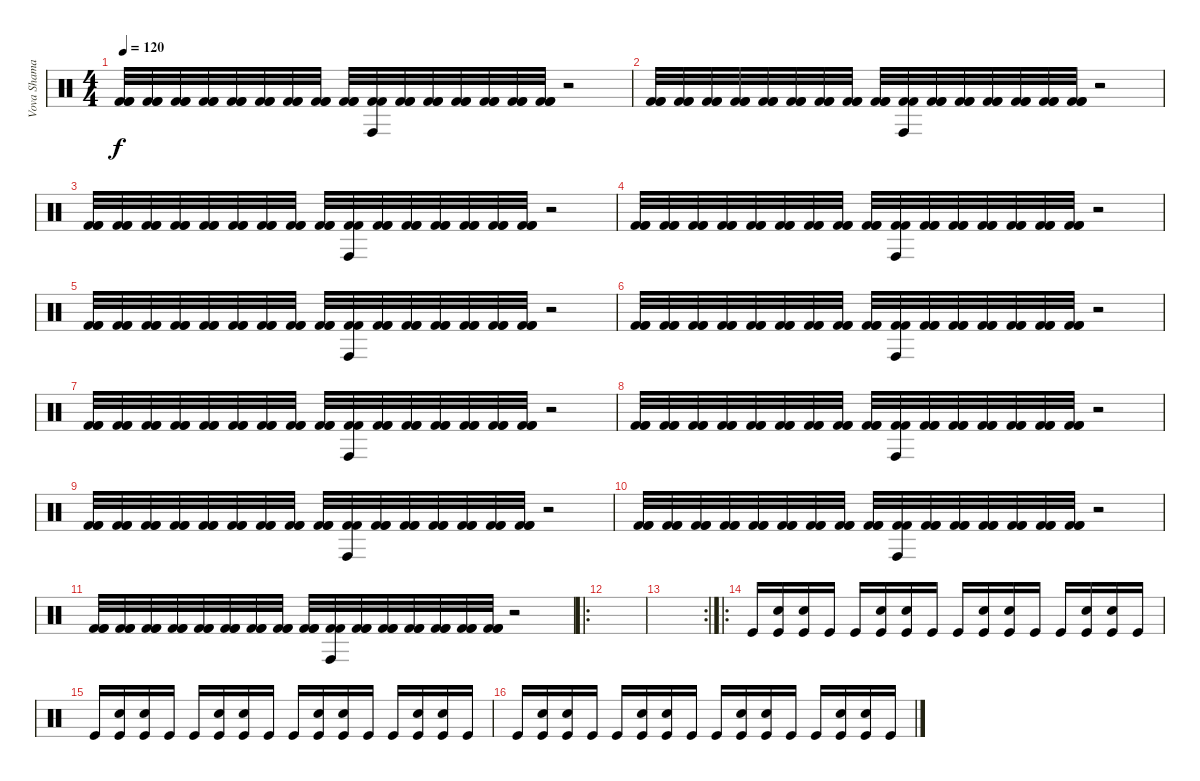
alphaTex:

\track ("Vova Shamay" "Vova Shama") {instrument percussion}
\staff {score}
\articulation defaults
\ts (4 4)
\tempo 120
\clef neutral
\ks c
("Kick (hit) 2" "Kick (hit) 2" "Kick (hit) 2").32{dy f} ("Kick (hit) 2" "Kick (hit) 2" "Kick (hit) 2").32 ("Kick (hit) 2" "Kick (hit) 2" "Kick (hit) 2").32 ("Kick (hit) 2" "Kick (hit) 2" "Kick (hit) 2").32 ("Kick (hit) 2" "Kick (hit) 2" "Kick (hit) 2").32 ("Kick (hit) 2" "Kick (hit) 2" "Kick (hit) 2").32 ("Kick (hit) 2" "Kick (hit) 2" "Kick (hit) 2").32 ("Kick (hit) 2" "Kick (hit) 2" "Kick (hit) 2").32 ("Kick (hit) 2" "Kick (hit) 2" "Kick (hit) 2").32 ("Conga high (hit)" "Kick (hit) 2" "Kick (hit) 2").32 ("Kick (hit) 2" "Kick (hit) 2" "Kick (hit) 2").32 ("Kick (hit) 2" "Kick (hit) 2" "Kick (hit) 2").32 ("Kick (hit) 2" "Kick (hit) 2" "Kick (hit) 2").32 ("Kick (hit) 2" "Kick (hit) 2" "Kick (hit) 2").32 ("Kick (hit) 2" "Kick (hit) 2" "Kick (hit) 2").32 ("Kick (hit) 2" "Kick (hit) 2" "Kick (hit) 2").32 r.2 |
("Kick (hit) 2" "Kick (hit) 2" "Kick (hit) 2").32 ("Kick (hit) 2" "Kick (hit) 2" "Kick (hit) 2").32 ("Kick (hit) 2" "Kick (hit) 2" "Kick (hit) 2").32 ("Kick (hit) 2" "Kick (hit) 2" "Kick (hit) 2").32 ("Kick (hit) 2" "Kick (hit) 2" "Kick (hit) 2").32 ("Kick (hit) 2" "Kick (hit) 2" "Kick (hit) 2").32 ("Kick (hit) 2" "Kick (hit) 2" "Kick (hit) 2").32 ("Kick (hit) 2" "Kick (hit) 2" "Kick (hit) 2").32 ("Kick (hit) 2" "Kick (hit) 2" "Kick (hit) 2").32 ("Conga high (hit)" "Kick (hit) 2" "Kick (hit) 2").32 ("Kick (hit) 2" "Kick (hit) 2" "Kick (hit) 2").32 ("Kick (hit) 2" "Kick (hit) 2" "Kick (hit) 2").32 ("Kick (hit) 2" "Kick (hit) 2" "Kick (hit) 2").32 ("Kick (hit) 2" "Kick (hit) 2" "Kick (hit) 2").32 ("Kick (hit) 2" "Kick (hit) 2" "Kick (hit) 2").32 ("Kick (hit) 2" "Kick (hit) 2" "Kick (hit) 2").32 r.2 |
("Kick (hit) 2" "Kick (hit) 2" "Kick (hit) 2").32 ("Kick (hit) 2" "Kick (hit) 2" "Kick (hit) 2").32 ("Kick (hit) 2" "Kick (hit) 2" "Kick (hit) 2").32 ("Kick (hit) 2" "Kick (hit) 2" "Kick (hit) 2").32 ("Kick (hit) 2" "Kick (hit) 2" "Kick (hit) 2").32 ("Kick (hit) 2" "Kick (hit) 2" "Kick (hit) 2").32 ("Kick (hit) 2" "Kick (hit) 2" "Kick (hit) 2").32 ("Kick (hit) 2" "Kick (hit) 2" "Kick (hit) 2").32 ("Kick (hit) 2" "Kick (hit) 2" "Kick (hit) 2").32 ("Conga high (hit)" "Kick (hit) 2" "Kick (hit) 2").32 ("Kick (hit) 2" "Kick (hit) 2" "Kick (hit) 2").32 ("Kick (hit) 2" "Kick (hit) 2" "Kick (hit) 2").32 ("Kick (hit) 2" "Kick (hit) 2" "Kick (hit) 2").32 ("Kick (hit) 2" "Kick (hit) 2" "Kick (hit) 2").32 ("Kick (hit) 2" "Kick (hit) 2" "Kick (hit) 2").32 ("Kick (hit) 2" "Kick (hit) 2" "Kick (hit) 2").32 r.2 |
("Kick (hit) 2" "Kick (hit) 2" "Kick (hit) 2").32 ("Kick (hit) 2" "Kick (hit) 2" "Kick (hit) 2").32 ("Kick (hit) 2" "Kick (hit) 2" "Kick (hit) 2").32 ("Kick (hit) 2" "Kick (hit) 2" "Kick (hit) 2").32 ("Kick (hit) 2" "Kick (hit) 2" "Kick (hit) 2").32 ("Kick (hit) 2" "Kick (hit) 2" "Kick (hit) 2").32 ("Kick (hit) 2" "Kick (hit) 2" "Kick (hit) 2").32 ("Kick (hit) 2" "Kick (hit) 2" "Kick (hit) 2").32 ("Kick (hit) 2" "Kick (hit) 2" "Kick (hit) 2").32 ("Conga high (hit)" "Kick (hit) 2" "Kick (hit) 2").32 ("Kick (hit) 2" "Kick (hit) 2" "Kick (hit) 2").32 ("Kick (hit) 2" "Kick (hit) 2" "Kick (hit) 2").32 ("Kick (hit) 2" "Kick (hit) 2" "Kick (hit) 2").32 ("Kick (hit) 2" "Kick (hit) 2" "Kick (hit) 2").32 ("Kick (hit) 2" "Kick (hit) 2" "Kick (hit) 2").32 ("Kick (hit) 2" "Kick (hit) 2" "Kick (hit) 2").32 r.2 |
("Kick (hit) 2" "Kick (hit) 2" "Kick (hit) 2").32 ("Kick (hit) 2" "Kick (hit) 2" "Kick (hit) 2").32 ("Kick (hit) 2" "Kick (hit) 2" "Kick (hit) 2").32 ("Kick (hit) 2" "Kick (hit) 2" "Kick (hit) 2").32 ("Kick (hit) 2" "Kick (hit) 2" "Kick (hit) 2").32 ("Kick (hit) 2" "Kick (hit) 2" "Kick (hit) 2").32 ("Kick (hit) 2" "Kick (hit) 2" "Kick (hit) 2").32 ("Kick (hit) 2" "Kick (hit) 2" "Kick (hit) 2").32 ("Kick (hit) 2" "Kick (hit) 2" "Kick (hit) 2").32 ("Conga high (hit)" "Kick (hit) 2" "Kick (hit) 2").32 ("Kick (hit) 2" "Kick (hit) 2" "Kick (hit) 2").32 ("Kick (hit) 2" "Kick (hit) 2" "Kick (hit) 2").32 ("Kick (hit) 2" "Kick (hit) 2" "Kick (hit) 2").32 ("Kick (hit) 2" "Kick (hit) 2" "Kick (hit) 2").32 ("Kick (hit) 2" "Kick (hit) 2" "Kick (hit) 2").32 ("Kick (hit) 2" "Kick (hit) 2" "Kick (hit) 2").32 r.2 |
("Kick (hit) 2" "Kick (hit) 2" "Kick (hit) 2").32 ("Kick (hit) 2" "Kick (hit) 2" "Kick (hit) 2").32 ("Kick (hit) 2" "Kick (hit) 2" "Kick (hit) 2").32 ("Kick (hit) 2" "Kick (hit) 2" "Kick (hit) 2").32 ("Kick (hit) 2" "Kick (hit) 2" "Kick (hit) 2").32 ("Kick (hit) 2" "Kick (hit) 2" "Kick (hit) 2").32 ("Kick (hit) 2" "Kick (hit) 2" "Kick (hit) 2").32 ("Kick (hit) 2" "Kick (hit) 2" "Kick (hit) 2").32 ("Kick (hit) 2" "Kick (hit) 2" "Kick (hit) 2").32 ("Conga high (hit)" "Kick (hit) 2" "Kick (hit) 2").32 ("Kick (hit) 2" "Kick (hit) 2" "Kick (hit) 2").32 ("Kick (hit) 2" "Kick (hit) 2" "Kick (hit) 2").32 ("Kick (hit) 2" "Kick (hit) 2" "Kick (hit) 2").32 ("Kick (hit) 2" "Kick (hit) 2" "Kick (hit) 2").32 ("Kick (hit) 2" "Kick (hit) 2" "Kick (hit) 2").32 ("Kick (hit) 2" "Kick (hit) 2" "Kick (hit) 2").32 r.2 |
("Kick (hit) 2" "Kick (hit) 2" "Kick (hit) 2").32 ("Kick (hit) 2" "Kick (hit) 2" "Kick (hit) 2").32 ("Kick (hit) 2" "Kick (hit) 2" "Kick (hit) 2").32 ("Kick (hit) 2" "Kick (hit) 2" "Kick (hit) 2").32 ("Kick (hit) 2" "Kick (hit) 2" "Kick (hit) 2").32 ("Kick (hit) 2" "Kick (hit) 2" "Kick (hit) 2").32 ("Kick (hit) 2" "Kick (hit) 2" "Kick (hit) 2").32 ("Kick (hit) 2" "Kick (hit) 2" "Kick (hit) 2").32 ("Kick (hit) 2" "Kick (hit) 2" "Kick (hit) 2").32 ("Conga high (hit)" "Kick (hit) 2" "Kick (hit) 2").32 ("Kick (hit) 2" "Kick (hit) 2" "Kick (hit) 2").32 ("Kick (hit) 2" "Kick (hit) 2" "Kick (hit) 2").32 ("Kick (hit) 2" "Kick (hit) 2" "Kick (hit) 2").32 ("Kick (hit) 2" "Kick (hit) 2" "Kick (hit) 2").32 ("Kick (hit) 2" "Kick (hit) 2" "Kick (hit) 2").32 ("Kick (hit) 2" "Kick (hit) 2" "Kick (hit) 2").32 r.2 |
("Kick (hit) 2" "Kick (hit) 2" "Kick (hit) 2").32 ("Kick (hit) 2" "Kick (hit) 2" "Kick (hit) 2").32 ("Kick (hit) 2" "Kick (hit) 2" "Kick (hit) 2").32 ("Kick (hit) 2" "Kick (hit) 2" "Kick (hit) 2").32 ("Kick (hit) 2" "Kick (hit) 2" "Kick (hit) 2").32 ("Kick (hit) 2" "Kick (hit) 2" "Kick (hit) 2").32 ("Kick (hit) 2" "Kick (hit) 2" "Kick (hit) 2").32 ("Kick (hit) 2" "Kick (hit) 2" "Kick (hit) 2").32 ("Kick (hit) 2" "Kick (hit) 2" "Kick (hit) 2").32 ("Conga high (hit)" "Kick (hit) 2" "Kick (hit) 2").32 ("Kick (hit) 2" "Kick (hit) 2" "Kick (hit) 2").32 ("Kick (hit) 2" "Kick (hit) 2" "Kick (hit) 2").32 ("Kick (hit) 2" "Kick (hit) 2" "Kick (hit) 2").32 ("Kick (hit) 2" "Kick (hit) 2" "Kick (hit) 2").32 ("Kick (hit) 2" "Kick (hit) 2" "Kick (hit) 2").32 ("Kick (hit) 2" "Kick (hit) 2" "Kick (hit) 2").32 r.2 |
("Kick (hit) 2" "Kick (hit) 2" "Kick (hit) 2").32 ("Kick (hit) 2" "Kick (hit) 2" "Kick (hit) 2").32 ("Kick (hit) 2" "Kick (hit) 2" "Kick (hit) 2").32 ("Kick (hit) 2" "Kick (hit) 2" "Kick (hit) 2").32 ("Kick (hit) 2" "Kick (hit) 2" "Kick (hit) 2").32 ("Kick (hit) 2" "Kick (hit) 2" "Kick (hit) 2").32 ("Kick (hit) 2" "Kick (hit) 2" "Kick (hit) 2").32 ("Kick (hit) 2" "Kick (hit) 2" "Kick (hit) 2").32 ("Kick (hit) 2" "Kick (hit) 2" "Kick (hit) 2").32 ("Conga high (hit)" "Kick (hit) 2" "Kick (hit) 2").32 ("Kick (hit) 2" "Kick (hit) 2" "Kick (hit) 2").32 ("Kick (hit) 2" "Kick (hit) 2" "Kick (hit) 2").32 ("Kick (hit) 2" "Kick (hit) 2" "Kick (hit) 2").32 ("Kick (hit) 2" "Kick (hit) 2" "Kick (hit) 2").32 ("Kick (hit) 2" "Kick (hit) 2" "Kick (hit) 2").32 ("Kick (hit) 2" "Kick (hit) 2" "Kick (hit) 2").32 r.2 |
("Kick (hit) 2" "Kick (hit) 2" "Kick (hit) 2").32 ("Kick (hit) 2" "Kick (hit) 2" "Kick (hit) 2").32 ("Kick (hit) 2" "Kick (hit) 2" "Kick (hit) 2").32 ("Kick (hit) 2" "Kick (hit) 2" "Kick (hit) 2").32 ("Kick (hit) 2" "Kick (hit) 2" "Kick (hit) 2").32 ("Kick (hit) 2" "Kick (hit) 2" "Kick (hit) 2").32 ("Kick (hit) 2" "Kick (hit) 2" "Kick (hit) 2").32 ("Kick (hit) 2" "Kick (hit) 2" "Kick (hit) 2").32 ("Kick (hit) 2" "Kick (hit) 2" "Kick (hit) 2").32 ("Conga high (hit)" "Kick (hit) 2" "Kick (hit) 2").32 ("Kick (hit) 2" "Kick (hit) 2" "Kick (hit) 2").32 ("Kick (hit) 2" "Kick (hit) 2" "Kick (hit) 2").32 ("Kick (hit) 2" "Kick (hit) 2" "Kick (hit) 2").32 ("Kick (hit) 2" "Kick (hit) 2" "Kick (hit) 2").32 ("Kick (hit) 2" "Kick (hit) 2" "Kick (hit) 2").32 ("Kick (hit) 2" "Kick (hit) 2" "Kick (hit) 2").32 r.2 |
("Kick (hit) 2" "Kick (hit) 2" "Kick (hit) 2").32 ("Kick (hit) 2" "Kick (hit) 2" "Kick (hit) 2").32 ("Kick (hit) 2" "Kick (hit) 2" "Kick (hit) 2").32 ("Kick (hit) 2" "Kick (hit) 2" "Kick (hit) 2").32 ("Kick (hit) 2" "Kick (hit) 2" "Kick (hit) 2").32 ("Kick (hit) 2" "Kick (hit) 2" "Kick (hit) 2").32 ("Kick (hit) 2" "Kick (hit) 2" "Kick (hit) 2").32 ("Kick (hit) 2" "Kick (hit) 2" "Kick (hit) 2").32 ("Kick (hit) 2" "Kick (hit) 2" "Kick (hit) 2").32 ("Conga high (hit)" "Kick (hit) 2" "Kick (hit) 2").32 ("Kick (hit) 2" "Kick (hit) 2" "Kick (hit) 2").32 ("Kick (hit) 2" "Kick (hit) 2" "Kick (hit) 2").32 ("Kick (hit) 2" "Kick (hit) 2" "Kick (hit) 2").32 ("Kick (hit) 2" "Kick (hit) 2" "Kick (hit) 2").32 ("Kick (hit) 2" "Kick (hit) 2" "Kick (hit) 2").32 ("Kick (hit) 2" "Kick (hit) 2" "Kick (hit) 2").32 r.2 |
\ro
|
\rc 2
|
\ro "Kick (hit)".16
("Kick (hit)" "Electric Snare (hit)").16 ("Kick (hit)" "Electric Snare (hit)").16 "Kick (hit)".16 "Kick (hit)".16 ("Kick (hit)" "Electric Snare (hit)").16 ("Kick (hit)" "Electric Snare (hit)").16 "Kick (hit)".16 "Kick (hit)".16 ("Kick (hit)" "Electric Snare (hit)").16 ("Kick (hit)" "Electric Snare (hit)").16 "Kick (hit)".16 "Kick (hit)".16 ("Kick (hit)" "Electric Snare (hit)").16 ("Kick (hit)" "Electric Snare (hit)").16 "Kick (hit)".16 |
"Kick (hit)".16 ("Kick (hit)" "Electric Snare (hit)").16 ("Kick (hit)" "Electric Snare (hit)").16 "Kick (hit)".16 "Kick (hit)".16 ("Kick (hit)" "Electric Snare (hit)").16 ("Kick (hit)" "Electric Snare (hit)").16 "Kick (hit)".16 "Kick (hit)".16 ("Kick (hit)" "Electric Snare (hit)").16 ("Kick (hit)" "Electric Snare (hit)").16 "Kick (hit)".16 "Kick (hit)".16 ("Kick (hit)" "Electric Snare (hit)").16 ("Kick (hit)" "Electric Snare (hit)").16 "Kick (hit)".16 |
"Kick (hit)".16 ("Kick (hit)" "Electric Snare (hit)").16 ("Kick (hit)" "Electric Snare (hit)").16 "Kick (hit)".16 "Kick (hit)".16 ("Kick (hit)" "Electric Snare (hit)").16 ("Kick (hit)" "Electric Snare (hit)").16 "Kick (hit)".16 "Kick (hit)".16 ("Kick (hit)" "Electric Snare (hit)").16 ("Kick (hit)" "Electric Snare (hit)").16 "Kick (hit)".16 "Kick (hit)".16 ("Kick (hit)" "Electric Snare (hit)").16 ("Kick (hit)" "Electric Snare (hit)").16 "Kick (hit)".16
